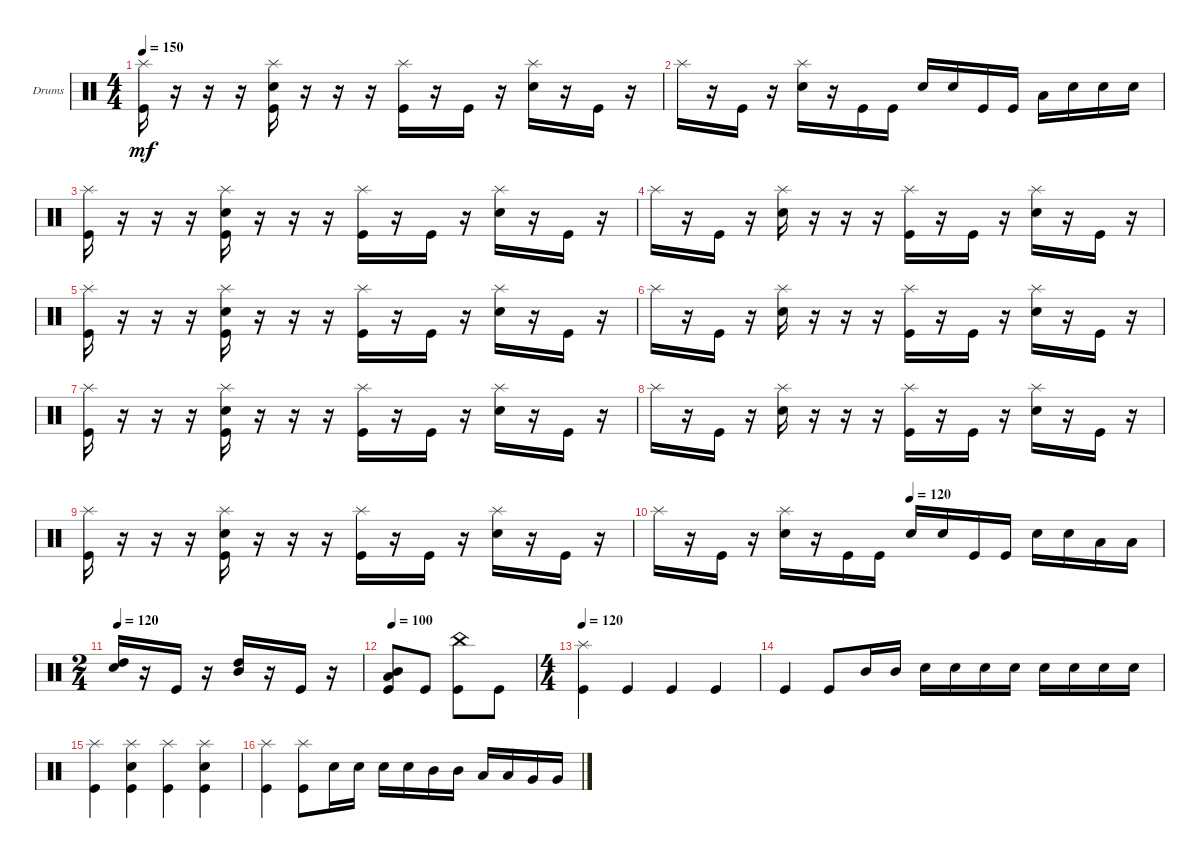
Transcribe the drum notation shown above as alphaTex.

\bracketExtendMode groupsimilarinstruments
\firstSystemTrackNameOrientation horizontal
\otherSystemsTrackNameOrientation horizontal
\track ("Drumkit" "Drums") {instrument percussion}
\staff {score}
\articulation defaults
\ts (4 4)
\tempo 150
\clef neutral
\ks c
("Splash (hit)" "Kick (hit)").16{dy mf} r.16 r.16 r.16 ("Splash (hit)" "Snare (hit) 2" "Kick (hit)").16 r.16 r.16 r.16 ("Splash (hit)" "Kick (hit)").16 r.16 "Kick (hit)".16 r.16 ("Splash (hit)" "Snare (hit) 2").16 r.16 "Kick (hit)".16 r.16 |
"Splash (hit)".16 r.16 "Kick (hit)".16 r.16 ("Splash (hit)" "Snare (hit) 2").16 r.16 "Kick (hit)".16 "Kick (hit)".16 "Snare (hit) 2".16 "Snare (hit) 2".16 "Kick (hit)".16 "Kick (hit)".16 "Low Tom (hit)".16 "Snare (hit) 2".16 "Snare (hit) 2".16 "Snare (hit) 2".16 |
("Splash (hit)" "Kick (hit)").16 r.16 r.16 r.16 ("Splash (hit)" "Snare (hit) 2" "Kick (hit)").16 r.16 r.16 r.16 ("Splash (hit)" "Kick (hit)").16 r.16 "Kick (hit)".16 r.16 ("Splash (hit)" "Snare (hit) 2").16 r.16 "Kick (hit)".16 r.16 |
"Splash (hit)".16 r.16 "Kick (hit)".16 r.16 ("Splash (hit)" "Snare (hit) 2").16 r.16 r.16 r.16 ("Splash (hit)" "Kick (hit)").16 r.16 "Kick (hit)".16 r.16 ("Snare (hit) 2" "Splash (hit)").16 r.16 "Kick (hit)".16 r.16 |
("Splash (hit)" "Kick (hit)").16 r.16 r.16 r.16 ("Splash (hit)" "Snare (hit) 2" "Kick (hit)").16 r.16 r.16 r.16 ("Splash (hit)" "Kick (hit)").16 r.16 "Kick (hit)".16 r.16 ("Splash (hit)" "Snare (hit) 2").16 r.16 "Kick (hit)".16 r.16 |
"Splash (hit)".16 r.16 "Kick (hit)".16 r.16 ("Splash (hit)" "Snare (hit) 2").16 r.16 r.16 r.16 ("Splash (hit)" "Kick (hit)").16 r.16 "Kick (hit)".16 r.16 ("Snare (hit) 2" "Splash (hit)").16 r.16 "Kick (hit)".16 r.16 |
("Splash (hit)" "Kick (hit)").16 r.16 r.16 r.16 ("Splash (hit)" "Snare (hit) 2" "Kick (hit)").16 r.16 r.16 r.16 ("Splash (hit)" "Kick (hit)").16 r.16 "Kick (hit)".16 r.16 ("Splash (hit)" "Snare (hit) 2").16 r.16 "Kick (hit)".16 r.16 |
"Splash (hit)".16 r.16 "Kick (hit)".16 r.16 ("Splash (hit)" "Snare (hit) 2").16 r.16 r.16 r.16 ("Splash (hit)" "Kick (hit)").16 r.16 "Kick (hit)".16 r.16 ("Snare (hit) 2" "Splash (hit)").16 r.16 "Kick (hit)".16 r.16 |
("Splash (hit)" "Kick (hit)").16 r.16 r.16 r.16 ("Splash (hit)" "Snare (hit) 2" "Kick (hit)").16 r.16 r.16 r.16 ("Splash (hit)" "Kick (hit)").16 r.16 "Kick (hit)".16 r.16 ("Splash (hit)" "Snare (hit) 2").16 r.16 "Kick (hit)".16 r.16 |
\tempo (120 0.5)
"Splash (hit)".16 r.16 "Kick (hit)".16 r.16 ("Splash (hit)" "Snare (hit) 2").16 r.16 "Kick (hit)".16 "Kick (hit)".16 "Snare (hit) 2".16 "Snare (hit) 2".16 "Kick (hit)".16 "Kick (hit)".16 "Snare (hit) 2".16 "Snare (hit) 2".16 "Low Tom (hit)".16 "Low Tom (hit)".16 |
\ts (2 4)
\tempo 120
("Snare (hit) 2" "High Tom (hit)").16 r.16 "Kick (hit)".16 r.16 ("Mid Tom (hit)" "High Tom (hit)").16 r.16 "Kick (hit)".16 r.16 |
\tempo 100
("Kick (hit)" "Mid Tom (hit)" "Low Tom (hit)").8 "Kick (hit)".8 ("Kick (hit)" "China (hit)").8 "Kick (hit)".8 |
\ts (4 4)
\tempo 120
("Kick (hit)" "Splash (hit)").4 "Kick (hit)".4 "Kick (hit)".4 "Kick (hit)".4 |
"Kick (hit)".4 "Kick (hit)".8 "Mid Tom (hit)".16 "Mid Tom (hit)".16 "Snare (hit) 2".16 "Snare (hit) 2".16 "Snare (hit) 2".16 "Snare (hit) 2".16 "Snare (hit) 2".16 "Snare (hit) 2".16 "Snare (hit) 2".16 "Snare (hit) 2".16 |
("Kick (hit)" "Splash (hit)").4 ("Kick (hit)" "Splash (hit)" "Snare (hit) 2").4 ("Kick (hit)" "Splash (hit)").4 ("Kick (hit)" "Splash (hit)" "Snare (hit) 2").4 |
("Splash (hit)" "Kick (hit)").4 ("Kick (hit)" "Splash (hit)").8 "Snare (hit) 2".16 "Snare (hit) 2".16 "Snare (hit) 2".16 "Snare (hit) 2".16 "Mid Tom (hit)".16 "Mid Tom (hit)".16 "Low Tom (hit)".16 "Low Tom (hit)".16 "Very Low Tom (hit)".16 "Very Low Tom (hit)".16
